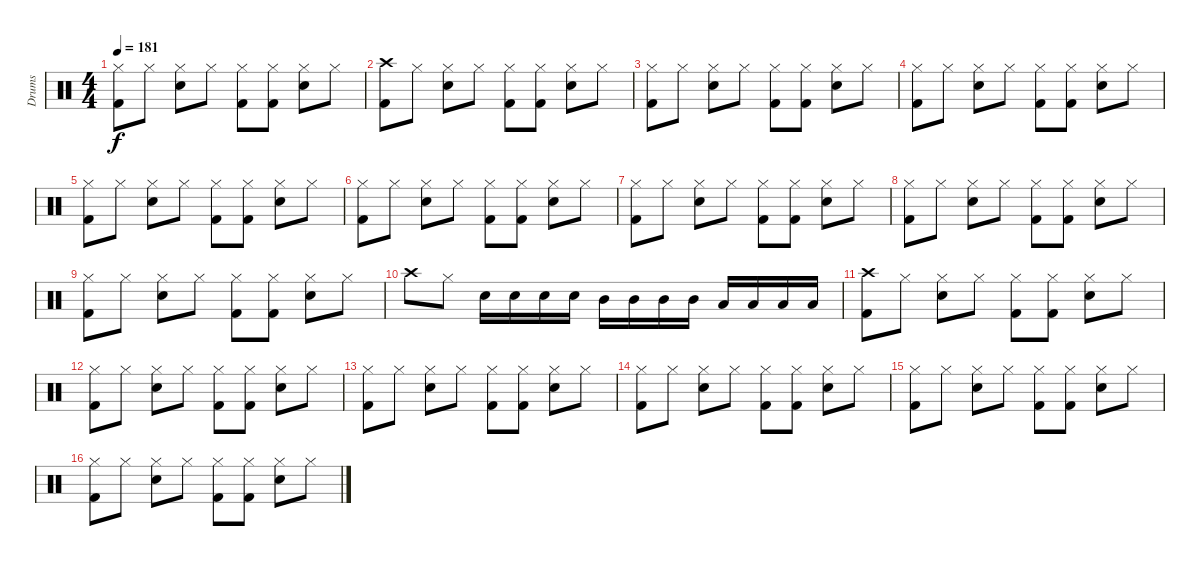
\track ("Drums" "Drums") {instrument percussion}
\staff {score}
\articulation defaults
\ts (4 4)
\tempo 181
\clef neutral
\ks c
("Hi-Hat (closed)" "Kick (hit) 2").8{dy f} "Hi-Hat (closed)".8 ("Hi-Hat (closed)" "Snare (hit) 2").8 "Hi-Hat (closed)".8 ("Hi-Hat (closed)" "Kick (hit) 2").8 ("Hi-Hat (closed)" "Kick (hit) 2").8 ("Hi-Hat (closed)" "Snare (hit) 2").8 "Hi-Hat (closed)".8 |
("Crash high (hit)" "Kick (hit) 2").8 "Hi-Hat (closed)".8 ("Hi-Hat (closed)" "Snare (hit) 2").8 "Hi-Hat (closed)".8 ("Hi-Hat (closed)" "Kick (hit) 2").8 ("Hi-Hat (closed)" "Kick (hit) 2").8 ("Hi-Hat (closed)" "Snare (hit) 2").8 "Hi-Hat (closed)".8 |
("Hi-Hat (closed)" "Kick (hit) 2").8 "Hi-Hat (closed)".8 ("Hi-Hat (closed)" "Snare (hit) 2").8 "Hi-Hat (closed)".8 ("Hi-Hat (closed)" "Kick (hit) 2").8 ("Hi-Hat (closed)" "Kick (hit) 2").8 ("Hi-Hat (closed)" "Snare (hit) 2").8 "Hi-Hat (closed)".8 |
("Hi-Hat (closed)" "Kick (hit) 2").8 "Hi-Hat (closed)".8 ("Hi-Hat (closed)" "Snare (hit) 2").8 "Hi-Hat (closed)".8 ("Hi-Hat (closed)" "Kick (hit) 2").8 ("Hi-Hat (closed)" "Kick (hit) 2").8 ("Hi-Hat (closed)" "Snare (hit) 2").8 "Hi-Hat (closed)".8 |
("Hi-Hat (closed)" "Kick (hit) 2").8 "Hi-Hat (closed)".8 ("Hi-Hat (closed)" "Snare (hit) 2").8 "Hi-Hat (closed)".8 ("Hi-Hat (closed)" "Kick (hit) 2").8 ("Hi-Hat (closed)" "Kick (hit) 2").8 ("Hi-Hat (closed)" "Snare (hit) 2").8 "Hi-Hat (closed)".8 |
("Hi-Hat (closed)" "Kick (hit) 2").8 "Hi-Hat (closed)".8 ("Hi-Hat (closed)" "Snare (hit) 2").8 "Hi-Hat (closed)".8 ("Hi-Hat (closed)" "Kick (hit) 2").8 ("Hi-Hat (closed)" "Kick (hit) 2").8 ("Hi-Hat (closed)" "Snare (hit) 2").8 "Hi-Hat (closed)".8 |
("Hi-Hat (closed)" "Kick (hit) 2").8 "Hi-Hat (closed)".8 ("Hi-Hat (closed)" "Snare (hit) 2").8 "Hi-Hat (closed)".8 ("Hi-Hat (closed)" "Kick (hit) 2").8 ("Hi-Hat (closed)" "Kick (hit) 2").8 ("Hi-Hat (closed)" "Snare (hit) 2").8 "Hi-Hat (closed)".8 |
("Hi-Hat (closed)" "Kick (hit) 2").8 "Hi-Hat (closed)".8 ("Hi-Hat (closed)" "Snare (hit) 2").8 "Hi-Hat (closed)".8 ("Hi-Hat (closed)" "Kick (hit) 2").8 ("Hi-Hat (closed)" "Kick (hit) 2").8 ("Hi-Hat (closed)" "Snare (hit) 2").8 "Hi-Hat (closed)".8 |
("Hi-Hat (closed)" "Kick (hit) 2").8 "Hi-Hat (closed)".8 ("Hi-Hat (closed)" "Snare (hit) 2").8 "Hi-Hat (closed)".8 ("Hi-Hat (closed)" "Kick (hit) 2").8 ("Hi-Hat (closed)" "Kick (hit) 2").8 ("Hi-Hat (closed)" "Snare (hit) 2").8 "Hi-Hat (closed)".8 |
"Crash high (hit)".8 "Hi-Hat (closed)".8 "Snare (hit) 2".16 "Snare (hit) 2".16 "Snare (hit) 2".16 "Snare (hit) 2".16 "Mid Tom (hit)".16 "Mid Tom (hit)".16 "Mid Tom (hit)".16 "Mid Tom (hit)".16 "Low Tom (hit)".16 "Low Tom (hit)".16 "Low Tom (hit)".16 "Low Tom (hit)".16 |
("Crash high (hit)" "Kick (hit) 2").8 "Hi-Hat (closed)".8 ("Hi-Hat (closed)" "Snare (hit) 2").8 "Hi-Hat (closed)".8 ("Hi-Hat (closed)" "Kick (hit) 2").8 ("Hi-Hat (closed)" "Kick (hit) 2").8 ("Hi-Hat (closed)" "Snare (hit) 2").8 "Hi-Hat (closed)".8 |
("Hi-Hat (closed)" "Kick (hit) 2").8 "Hi-Hat (closed)".8 ("Hi-Hat (closed)" "Snare (hit) 2").8 "Hi-Hat (closed)".8 ("Hi-Hat (closed)" "Kick (hit) 2").8 ("Hi-Hat (closed)" "Kick (hit) 2").8 ("Hi-Hat (closed)" "Snare (hit) 2").8 "Hi-Hat (closed)".8 |
("Hi-Hat (closed)" "Kick (hit) 2").8 "Hi-Hat (closed)".8 ("Hi-Hat (closed)" "Snare (hit) 2").8 "Hi-Hat (closed)".8 ("Hi-Hat (closed)" "Kick (hit) 2").8 ("Hi-Hat (closed)" "Kick (hit) 2").8 ("Hi-Hat (closed)" "Snare (hit) 2").8 "Hi-Hat (closed)".8 |
("Hi-Hat (closed)" "Kick (hit) 2").8 "Hi-Hat (closed)".8 ("Hi-Hat (closed)" "Snare (hit) 2").8 "Hi-Hat (closed)".8 ("Hi-Hat (closed)" "Kick (hit) 2").8 ("Hi-Hat (closed)" "Kick (hit) 2").8 ("Hi-Hat (closed)" "Snare (hit) 2").8 "Hi-Hat (closed)".8 |
("Hi-Hat (closed)" "Kick (hit) 2").8 "Hi-Hat (closed)".8 ("Hi-Hat (closed)" "Snare (hit) 2").8 "Hi-Hat (closed)".8 ("Hi-Hat (closed)" "Kick (hit) 2").8 ("Hi-Hat (closed)" "Kick (hit) 2").8 ("Hi-Hat (closed)" "Snare (hit) 2").8 "Hi-Hat (closed)".8 |
("Hi-Hat (closed)" "Kick (hit) 2").8 "Hi-Hat (closed)".8 ("Hi-Hat (closed)" "Snare (hit) 2").8 "Hi-Hat (closed)".8 ("Hi-Hat (closed)" "Kick (hit) 2").8 ("Hi-Hat (closed)" "Kick (hit) 2").8 ("Hi-Hat (closed)" "Snare (hit) 2").8 "Hi-Hat (closed)".8
